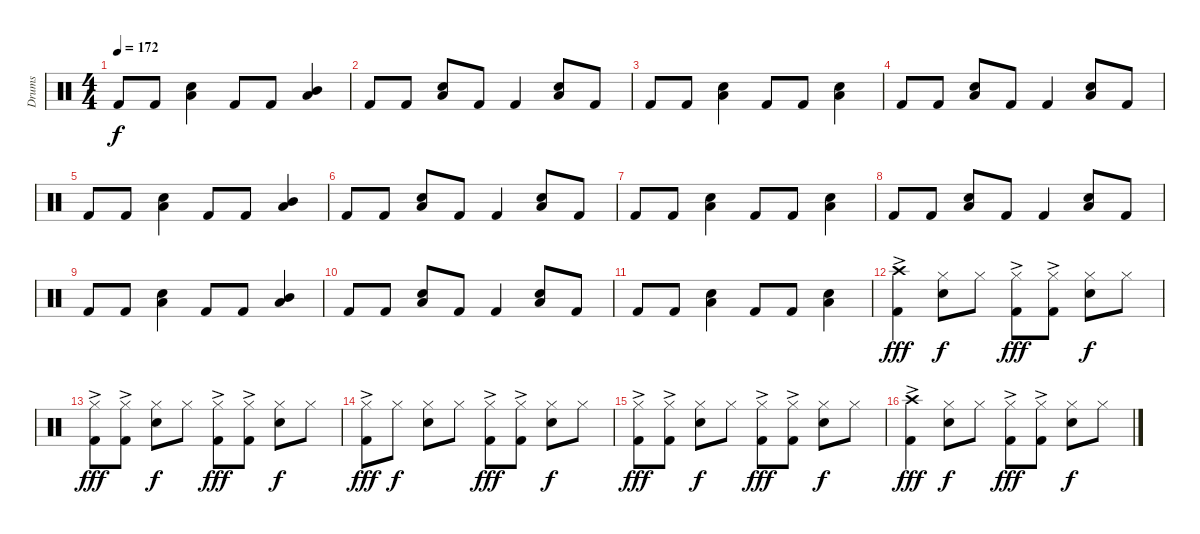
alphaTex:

\track ("Drums" "Drums") {instrument percussion}
\staff {score}
\articulation defaults
\ts (4 4)
\tempo 172
\clef neutral
\ks c "Kick (hit) 2".8{dy f} "Kick (hit) 2".8
("Electric Snare (hit)" "Low Floor Tom (hit)").4 "Kick (hit) 2".8 "Kick (hit) 2".8 ("Low Tom (hit)" "Mid Tom (hit)").4 |
"Kick (hit) 2".8 "Kick (hit) 2".8 ("Electric Snare (hit)" "Low Floor Tom (hit)").8 "Kick (hit) 2".8 "Kick (hit) 2".4 ("Electric Snare (hit)" "Low Floor Tom (hit)").8 "Kick (hit) 2".8 |
"Kick (hit) 2".8 "Kick (hit) 2".8 ("Electric Snare (hit)" "Low Floor Tom (hit)").4 "Kick (hit) 2".8 "Kick (hit) 2".8 ("Electric Snare (hit)" "Low Floor Tom (hit)").4 |
"Kick (hit) 2".8 "Kick (hit) 2".8 ("Electric Snare (hit)" "Low Floor Tom (hit)").8 "Kick (hit) 2".8 "Kick (hit) 2".4 ("Electric Snare (hit)" "Low Floor Tom (hit)").8 "Kick (hit) 2".8 |
"Kick (hit) 2".8 "Kick (hit) 2".8 ("Electric Snare (hit)" "Low Floor Tom (hit)").4 "Kick (hit) 2".8 "Kick (hit) 2".8 ("Low Tom (hit)" "Mid Tom (hit)").4 |
"Kick (hit) 2".8 "Kick (hit) 2".8 ("Electric Snare (hit)" "Low Floor Tom (hit)").8 "Kick (hit) 2".8 "Kick (hit) 2".4 ("Electric Snare (hit)" "Low Floor Tom (hit)").8 "Kick (hit) 2".8 |
"Kick (hit) 2".8 "Kick (hit) 2".8 ("Electric Snare (hit)" "Low Floor Tom (hit)").4 "Kick (hit) 2".8 "Kick (hit) 2".8 ("Electric Snare (hit)" "Low Floor Tom (hit)").4 |
"Kick (hit) 2".8 "Kick (hit) 2".8 ("Electric Snare (hit)" "Low Floor Tom (hit)").8 "Kick (hit) 2".8 "Kick (hit) 2".4 ("Electric Snare (hit)" "Low Floor Tom (hit)").8 "Kick (hit) 2".8 |
"Kick (hit) 2".8 "Kick (hit) 2".8 ("Electric Snare (hit)" "Low Floor Tom (hit)").4 "Kick (hit) 2".8 "Kick (hit) 2".8 ("Low Tom (hit)" "Mid Tom (hit)").4 |
"Kick (hit) 2".8 "Kick (hit) 2".8 ("Electric Snare (hit)" "Low Floor Tom (hit)").8 "Kick (hit) 2".8 "Kick (hit) 2".4 ("Electric Snare (hit)" "Low Floor Tom (hit)").8 "Kick (hit) 2".8 |
"Kick (hit) 2".8 "Kick (hit) 2".8 ("Electric Snare (hit)" "Low Floor Tom (hit)").4 "Kick (hit) 2".8 "Kick (hit) 2".8 ("Electric Snare (hit)" "Low Floor Tom (hit)").4 |
("Crash high (hit)" "Kick (hit) 2"{ac}).4{dy fff} ("Hi-Hat (closed)" "Electric Snare (hit)").8{dy f} "Hi-Hat (closed)".8 ("Hi-Hat (closed)" "Kick (hit) 2"{ac}).8{dy fff} ("Hi-Hat (closed)" "Kick (hit) 2"{ac}).8 ("Hi-Hat (closed)" "Electric Snare (hit)").8{dy f} "Hi-Hat (closed)".8 |
("Hi-Hat (closed)" "Kick (hit) 2"{ac}).8{dy fff} ("Hi-Hat (closed)" "Kick (hit) 2"{ac}).8 ("Hi-Hat (closed)" "Electric Snare (hit)").8{dy f} "Hi-Hat (closed)".8 ("Hi-Hat (closed)" "Kick (hit) 2"{ac}).8{dy fff} ("Hi-Hat (closed)" "Kick (hit) 2"{ac}).8 ("Hi-Hat (closed)" "Electric Snare (hit)").8{dy f} "Hi-Hat (closed)".8 |
("Hi-Hat (closed)" "Kick (hit) 2"{ac}).8{dy fff} "Hi-Hat (closed)".8{dy f} ("Hi-Hat (closed)" "Electric Snare (hit)").8 "Hi-Hat (closed)".8 ("Hi-Hat (closed)" "Kick (hit) 2"{ac}).8{dy fff} ("Hi-Hat (closed)" "Kick (hit) 2"{ac}).8 ("Hi-Hat (closed)" "Electric Snare (hit)").8{dy f} "Hi-Hat (closed)".8 |
("Hi-Hat (closed)" "Kick (hit) 2"{ac}).8{dy fff} ("Hi-Hat (closed)" "Kick (hit) 2"{ac}).8 ("Hi-Hat (closed)" "Electric Snare (hit)").8{dy f} "Hi-Hat (closed)".8 ("Hi-Hat (closed)" "Kick (hit) 2"{ac}).8{dy fff} ("Hi-Hat (closed)" "Kick (hit) 2"{ac}).8 ("Hi-Hat (closed)" "Electric Snare (hit)").8{dy f} "Hi-Hat (closed)".8 |
("Crash high (hit)" "Kick (hit) 2"{ac}).4{dy fff} ("Hi-Hat (closed)" "Electric Snare (hit)").8{dy f} "Hi-Hat (closed)".8 ("Hi-Hat (closed)" "Kick (hit) 2"{ac}).8{dy fff} ("Hi-Hat (closed)" "Kick (hit) 2"{ac}).8 ("Hi-Hat (closed)" "Electric Snare (hit)").8{dy f} "Hi-Hat (closed)".8
